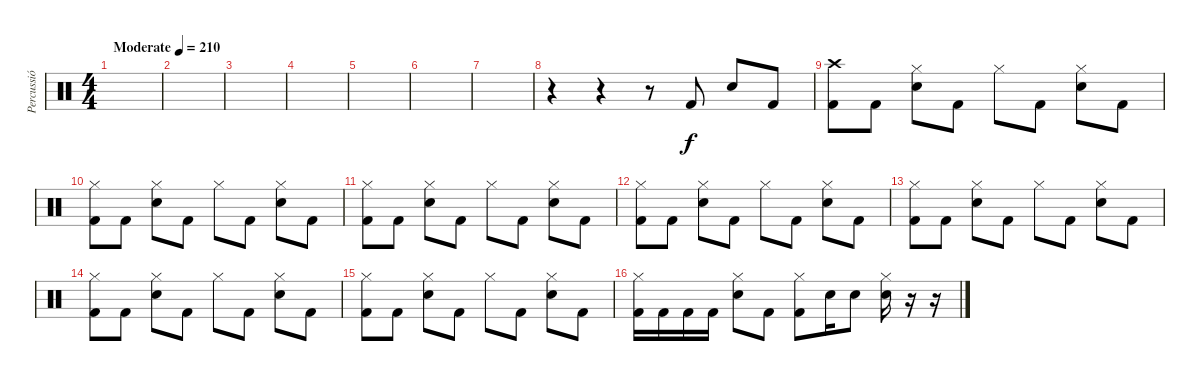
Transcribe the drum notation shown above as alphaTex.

\track ("Percussió" "Percussió") {instrument percussion}
\staff {score}
\articulation defaults
\ts (4 4)
\tempo (210 "Moderate")
\clef neutral
\ks c
|
|
|
|
|
|
|
r.4 r.4 r.8 "Kick (hit) 2".8 "Snare (hit) 2".8 "Kick (hit) 2".8 |
("Crash high (hit)" "Kick (hit) 2").8 "Kick (hit) 2".8 ("Hi-Hat (closed)" "Snare (hit) 2").8 "Kick (hit) 2".8 "Hi-Hat (closed)".8 "Kick (hit) 2".8 ("Hi-Hat (closed)" "Snare (hit) 2").8 "Kick (hit) 2".8 |
("Hi-Hat (closed)" "Kick (hit) 2").8 "Kick (hit) 2".8 ("Hi-Hat (closed)" "Snare (hit) 2").8 "Kick (hit) 2".8 "Hi-Hat (closed)".8 "Kick (hit) 2".8 ("Hi-Hat (closed)" "Snare (hit) 2").8 "Kick (hit) 2".8 |
("Hi-Hat (closed)" "Kick (hit) 2").8 "Kick (hit) 2".8 ("Hi-Hat (closed)" "Snare (hit) 2").8 "Kick (hit) 2".8 "Hi-Hat (closed)".8 "Kick (hit) 2".8 ("Hi-Hat (closed)" "Snare (hit) 2").8 "Kick (hit) 2".8 |
("Hi-Hat (closed)" "Kick (hit) 2").8 "Kick (hit) 2".8 ("Hi-Hat (closed)" "Snare (hit) 2").8 "Kick (hit) 2".8 "Hi-Hat (closed)".8 "Kick (hit) 2".8 ("Hi-Hat (closed)" "Snare (hit) 2").8 "Kick (hit) 2".8 |
("Hi-Hat (closed)" "Kick (hit) 2").8 "Kick (hit) 2".8 ("Hi-Hat (closed)" "Snare (hit) 2").8 "Kick (hit) 2".8 "Hi-Hat (closed)".8 "Kick (hit) 2".8 ("Hi-Hat (closed)" "Snare (hit) 2").8 "Kick (hit) 2".8 |
("Hi-Hat (closed)" "Kick (hit) 2").8 "Kick (hit) 2".8 ("Hi-Hat (closed)" "Snare (hit) 2").8 "Kick (hit) 2".8 "Hi-Hat (closed)".8 "Kick (hit) 2".8 ("Hi-Hat (closed)" "Snare (hit) 2").8 "Kick (hit) 2".8 |
("Hi-Hat (closed)" "Kick (hit) 2").8 "Kick (hit) 2".8 ("Hi-Hat (closed)" "Snare (hit) 2").8 "Kick (hit) 2".8 "Hi-Hat (closed)".8 "Kick (hit) 2".8 ("Hi-Hat (closed)" "Snare (hit) 2").8 "Kick (hit) 2".8 |
("Hi-Hat (closed)" "Kick (hit) 2").16 "Kick (hit) 2".16 "Kick (hit) 2".16 "Kick (hit) 2".16 ("Hi-Hat (closed)" "Snare (hit) 2").8 "Kick (hit) 2".8 ("Hi-Hat (closed)" "Kick (hit) 2").8 "Snare (hit) 2".16 "Snare (hit) 2".8 ("Hi-Hat (closed)" "Snare (hit) 2").16 r.16 r.16
